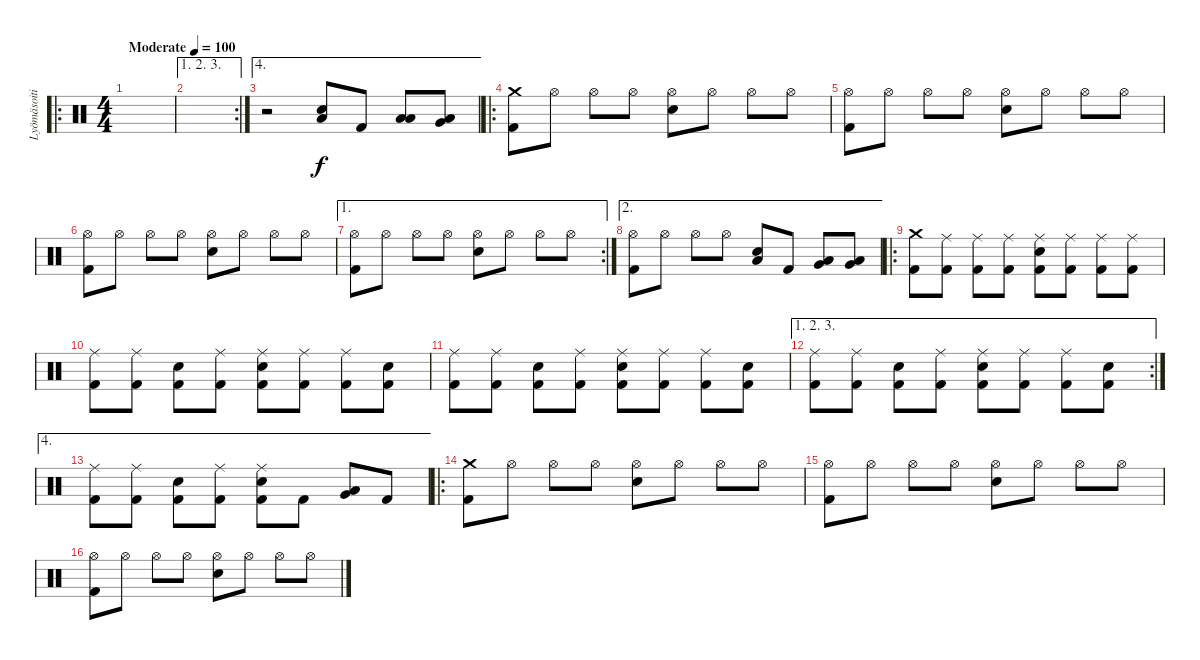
\track ("Lyömäsoitin" "Lyömäsoiti") {instrument percussion}
\staff {score}
\articulation defaults
\ro
\ts (4 4)
\tempo (100 "Moderate")
\clef neutral
\ks c
|
\ae (1 2 3)
\rc 2
|
\ae 4
r.2 ("Electric Snare (hit)" "Low Floor Tom (hit)").8 "Kick (hit) 2".8 ("Low Tom (hit)" "Low Floor Tom (hit)").8 ("Very Low Tom (hit)" "Low Floor Tom (hit)").8 |
\ro
("Crash medium (hit)" "Kick (hit) 2").8 "Hi-Hat (open)".8 "Hi-Hat (open)".8 "Hi-Hat (open)".8 ("Hi-Hat (open)" "Electric Snare (hit)").8 "Hi-Hat (open)".8 "Hi-Hat (open)".8 "Hi-Hat (open)".8 |
("Hi-Hat (open)" "Kick (hit) 2").8 "Hi-Hat (open)".8 "Hi-Hat (open)".8 "Hi-Hat (open)".8 ("Hi-Hat (open)" "Electric Snare (hit)").8 "Hi-Hat (open)".8 "Hi-Hat (open)".8 "Hi-Hat (open)".8 |
("Hi-Hat (open)" "Kick (hit) 2").8 "Hi-Hat (open)".8 "Hi-Hat (open)".8 "Hi-Hat (open)".8 ("Hi-Hat (open)" "Electric Snare (hit)").8 "Hi-Hat (open)".8 "Hi-Hat (open)".8 "Hi-Hat (open)".8 |
\ae 1
\rc 2
("Hi-Hat (open)" "Kick (hit) 2").8 "Hi-Hat (open)".8 "Hi-Hat (open)".8 "Hi-Hat (open)".8 ("Hi-Hat (open)" "Electric Snare (hit)").8 "Hi-Hat (open)".8 "Hi-Hat (open)".8 "Hi-Hat (open)".8 |
\ae 2
("Hi-Hat (open)" "Kick (hit) 2").8 "Hi-Hat (open)".8 "Hi-Hat (open)".8 "Hi-Hat (open)".8 ("Electric Snare (hit)" "Low Floor Tom (hit)").8 "Kick (hit) 2".8 ("Low Tom (hit)" "Very Low Tom (hit)").8 ("Very Low Tom (hit)" "Low Floor Tom (hit)").8 |
\ro
("Crash medium (hit)" "Kick (hit) 2").8 ("Ride (middle)" "Kick (hit) 2").8 ("Ride (middle)" "Kick (hit) 2").8 ("Ride (middle)" "Kick (hit) 2").8 ("Ride (middle)" "Electric Snare (hit)" "Kick (hit) 2").8 ("Ride (middle)" "Kick (hit) 2").8 ("Ride (middle)" "Kick (hit) 2").8 ("Ride (middle)" "Kick (hit) 2").8 |
("Ride (middle)" "Kick (hit) 2").8 ("Ride (middle)" "Kick (hit) 2").8 ("Snare (hit)" "Kick (hit) 2").8 ("Ride (middle)" "Kick (hit) 2").8 ("Ride (middle)" "Electric Snare (hit)" "Kick (hit) 2").8 ("Ride (middle)" "Kick (hit) 2").8 ("Ride (middle)" "Kick (hit) 2").8 ("Snare (hit)" "Kick (hit) 2").8 |
("Ride (middle)" "Kick (hit) 2").8 ("Ride (middle)" "Kick (hit) 2").8 ("Snare (hit)" "Kick (hit) 2").8 ("Ride (middle)" "Kick (hit) 2").8 ("Ride (middle)" "Electric Snare (hit)" "Kick (hit) 2").8 ("Ride (middle)" "Kick (hit) 2").8 ("Ride (middle)" "Kick (hit) 2").8 ("Snare (hit)" "Kick (hit) 2").8 |
\ae (1 2 3)
\rc 2
("Ride (middle)" "Kick (hit) 2").8 ("Ride (middle)" "Kick (hit) 2").8 ("Snare (hit)" "Kick (hit) 2").8 ("Ride (middle)" "Kick (hit) 2").8 ("Ride (middle)" "Electric Snare (hit)" "Kick (hit) 2").8 ("Ride (middle)" "Kick (hit) 2").8 ("Ride (middle)" "Kick (hit) 2").8 ("Snare (hit)" "Kick (hit) 2").8 |
\ae 4
("Ride (middle)" "Kick (hit) 2").8 ("Ride (middle)" "Kick (hit) 2").8 ("Snare (hit)" "Kick (hit) 2").8 ("Ride (middle)" "Kick (hit) 2").8 ("Ride (middle)" "Electric Snare (hit)" "Kick (hit) 2").8 "Kick (hit) 2".8 ("Very Low Tom (hit)" "Low Floor Tom (hit)").8 "Kick (hit) 2".8 |
\ro
("Crash medium (hit)" "Kick (hit) 2").8 "Hi-Hat (open)".8 "Hi-Hat (open)".8 "Hi-Hat (open)".8 ("Hi-Hat (open)" "Electric Snare (hit)").8 "Hi-Hat (open)".8 "Hi-Hat (open)".8 "Hi-Hat (open)".8 |
("Hi-Hat (open)" "Kick (hit) 2").8 "Hi-Hat (open)".8 "Hi-Hat (open)".8 "Hi-Hat (open)".8 ("Hi-Hat (open)" "Electric Snare (hit)").8 "Hi-Hat (open)".8 "Hi-Hat (open)".8 "Hi-Hat (open)".8 |
("Hi-Hat (open)" "Kick (hit) 2").8 "Hi-Hat (open)".8 "Hi-Hat (open)".8 "Hi-Hat (open)".8 ("Hi-Hat (open)" "Electric Snare (hit)").8 "Hi-Hat (open)".8 "Hi-Hat (open)".8 "Hi-Hat (open)".8
